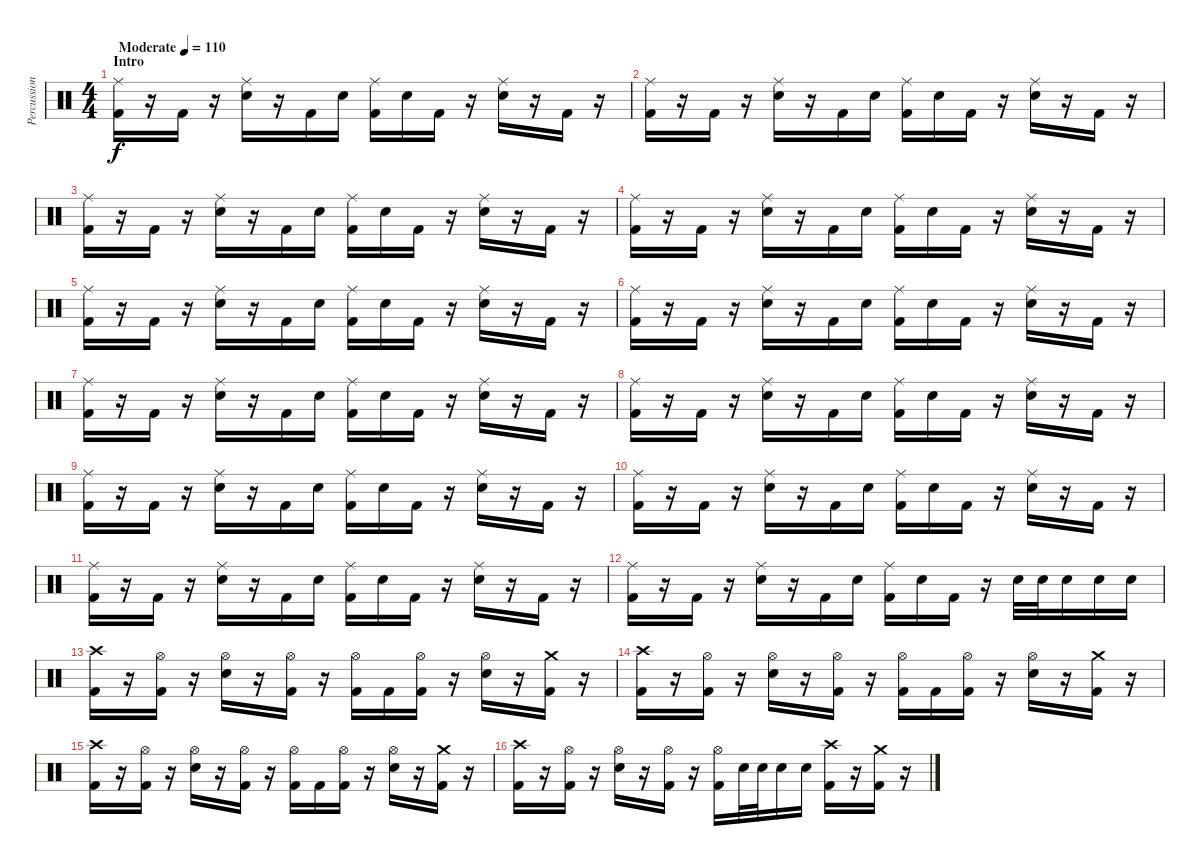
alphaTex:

\track ("Percussion" "Percussion") {instrument percussion}
\staff {score}
\articulation defaults
\ts (4 4)
\section ("" "Intro")
\tempo (110 "Moderate")
\clef neutral
\ks c
("Ride (middle)" "Kick (hit) 2").16{dy f} r.16 "Kick (hit) 2".16 r.16 ("Ride (middle)" "Snare (hit) 2").16 r.16 "Kick (hit) 2".16 "Snare (hit) 2".16 ("Ride (middle)" "Kick (hit) 2").16 "Snare (hit) 2".16 "Kick (hit) 2".16 r.16 ("Ride (middle)" "Snare (hit) 2").16 r.16 "Kick (hit) 2".16 r.16 |
("Ride (middle)" "Kick (hit) 2").16 r.16 "Kick (hit) 2".16 r.16 ("Ride (middle)" "Snare (hit) 2").16 r.16 "Kick (hit) 2".16 "Snare (hit) 2".16 ("Ride (middle)" "Kick (hit) 2").16 "Snare (hit) 2".16 "Kick (hit) 2".16 r.16 ("Ride (middle)" "Snare (hit) 2").16 r.16 "Kick (hit) 2".16 r.16 |
("Ride (middle)" "Kick (hit) 2").16 r.16 "Kick (hit) 2".16 r.16 ("Ride (middle)" "Snare (hit) 2").16 r.16 "Kick (hit) 2".16 "Snare (hit) 2".16 ("Ride (middle)" "Kick (hit) 2").16 "Snare (hit) 2".16 "Kick (hit) 2".16 r.16 ("Ride (middle)" "Snare (hit) 2").16 r.16 "Kick (hit) 2".16 r.16 |
("Ride (middle)" "Kick (hit) 2").16 r.16 "Kick (hit) 2".16 r.16 ("Ride (middle)" "Snare (hit) 2").16 r.16 "Kick (hit) 2".16 "Snare (hit) 2".16 ("Ride (middle)" "Kick (hit) 2").16 "Snare (hit) 2".16 "Kick (hit) 2".16 r.16 ("Ride (middle)" "Snare (hit) 2").16 r.16 "Kick (hit) 2".16 r.16 |
("Ride (middle)" "Kick (hit) 2").16 r.16 "Kick (hit) 2".16 r.16 ("Ride (middle)" "Snare (hit) 2").16 r.16 "Kick (hit) 2".16 "Snare (hit) 2".16 ("Ride (middle)" "Kick (hit) 2").16 "Snare (hit) 2".16 "Kick (hit) 2".16 r.16 ("Ride (middle)" "Snare (hit) 2").16 r.16 "Kick (hit) 2".16 r.16 |
("Ride (middle)" "Kick (hit) 2").16 r.16 "Kick (hit) 2".16 r.16 ("Ride (middle)" "Snare (hit) 2").16 r.16 "Kick (hit) 2".16 "Snare (hit) 2".16 ("Ride (middle)" "Kick (hit) 2").16 "Snare (hit) 2".16 "Kick (hit) 2".16 r.16 ("Ride (middle)" "Snare (hit) 2").16 r.16 "Kick (hit) 2".16 r.16 |
("Ride (middle)" "Kick (hit) 2").16 r.16 "Kick (hit) 2".16 r.16 ("Ride (middle)" "Snare (hit) 2").16 r.16 "Kick (hit) 2".16 "Snare (hit) 2".16 ("Ride (middle)" "Kick (hit) 2").16 "Snare (hit) 2".16 "Kick (hit) 2".16 r.16 ("Ride (middle)" "Snare (hit) 2").16 r.16 "Kick (hit) 2".16 r.16 |
("Ride (middle)" "Kick (hit) 2").16 r.16 "Kick (hit) 2".16 r.16 ("Ride (middle)" "Snare (hit) 2").16 r.16 "Kick (hit) 2".16 "Snare (hit) 2".16 ("Ride (middle)" "Kick (hit) 2").16 "Snare (hit) 2".16 "Kick (hit) 2".16 r.16 ("Ride (middle)" "Snare (hit) 2").16 r.16 "Kick (hit) 2".16 r.16 |
("Ride (middle)" "Kick (hit) 2").16 r.16 "Kick (hit) 2".16 r.16 ("Ride (middle)" "Snare (hit) 2").16 r.16 "Kick (hit) 2".16 "Snare (hit) 2".16 ("Ride (middle)" "Kick (hit) 2").16 "Snare (hit) 2".16 "Kick (hit) 2".16 r.16 ("Ride (middle)" "Snare (hit) 2").16 r.16 "Kick (hit) 2".16 r.16 |
("Ride (middle)" "Kick (hit) 2").16 r.16 "Kick (hit) 2".16 r.16 ("Ride (middle)" "Snare (hit) 2").16 r.16 "Kick (hit) 2".16 "Snare (hit) 2".16 ("Ride (middle)" "Kick (hit) 2").16 "Snare (hit) 2".16 "Kick (hit) 2".16 r.16 ("Ride (middle)" "Snare (hit) 2").16 r.16 "Kick (hit) 2".16 r.16 |
("Ride (middle)" "Kick (hit) 2").16 r.16 "Kick (hit) 2".16 r.16 ("Ride (middle)" "Snare (hit) 2").16 r.16 "Kick (hit) 2".16 "Snare (hit) 2".16 ("Ride (middle)" "Kick (hit) 2").16 "Snare (hit) 2".16 "Kick (hit) 2".16 r.16 ("Ride (middle)" "Snare (hit) 2").16 r.16 "Kick (hit) 2".16 r.16 |
("Ride (middle)" "Kick (hit) 2").16 r.16 "Kick (hit) 2".16 r.16 ("Ride (middle)" "Snare (hit) 2").16 r.16 "Kick (hit) 2".16 "Snare (hit) 2".16 ("Ride (middle)" "Kick (hit) 2").16 "Snare (hit) 2".16 "Kick (hit) 2".16 r.16 "Snare (hit) 2".32 "Snare (hit) 2".32 "Snare (hit) 2".16 "Snare (hit) 2".16 "Snare (hit) 2".16 |
("Crash high (hit)" "Kick (hit) 2").16 r.16 ("Hi-Hat (open)" "Kick (hit) 2").16 r.16 ("Hi-Hat (open)" "Snare (hit) 2").16 r.16 ("Hi-Hat (open)" "Kick (hit) 2").16 r.16 ("Hi-Hat (open)" "Kick (hit) 2").16 "Kick (hit) 2".16 ("Hi-Hat (open)" "Kick (hit) 2").16 r.16 ("Hi-Hat (open)" "Snare (hit) 2").16 r.16 ("Crash medium (hit)" "Kick (hit) 2").16 r.16 |
("Crash high (hit)" "Kick (hit) 2").16 r.16 ("Hi-Hat (open)" "Kick (hit) 2").16 r.16 ("Hi-Hat (open)" "Snare (hit) 2").16 r.16 ("Hi-Hat (open)" "Kick (hit) 2").16 r.16 ("Hi-Hat (open)" "Kick (hit) 2").16 "Kick (hit) 2".16 ("Hi-Hat (open)" "Kick (hit) 2").16 r.16 ("Hi-Hat (open)" "Snare (hit) 2").16 r.16 ("Crash medium (hit)" "Kick (hit) 2").16 r.16 |
("Crash high (hit)" "Kick (hit) 2").16 r.16 ("Hi-Hat (open)" "Kick (hit) 2").16 r.16 ("Hi-Hat (open)" "Snare (hit) 2").16 r.16 ("Hi-Hat (open)" "Kick (hit) 2").16 r.16 ("Hi-Hat (open)" "Kick (hit) 2").16 "Kick (hit) 2".16 ("Hi-Hat (open)" "Kick (hit) 2").16 r.16 ("Hi-Hat (open)" "Snare (hit) 2").16 r.16 ("Crash medium (hit)" "Kick (hit) 2").16 r.16 |
("Crash high (hit)" "Kick (hit) 2").16 r.16 ("Hi-Hat (open)" "Kick (hit) 2").16 r.16 ("Hi-Hat (open)" "Snare (hit) 2").16 r.16 ("Hi-Hat (open)" "Kick (hit) 2").16 r.16 ("Hi-Hat (open)" "Kick (hit) 2").16 "Snare (hit) 2".32 "Snare (hit) 2".32 "Snare (hit) 2".16 "Snare (hit) 2".16 ("Kick (hit) 2" "Crash high (hit)").16 r.16 ("Kick (hit) 2" "Crash medium (hit)").16 r.16
